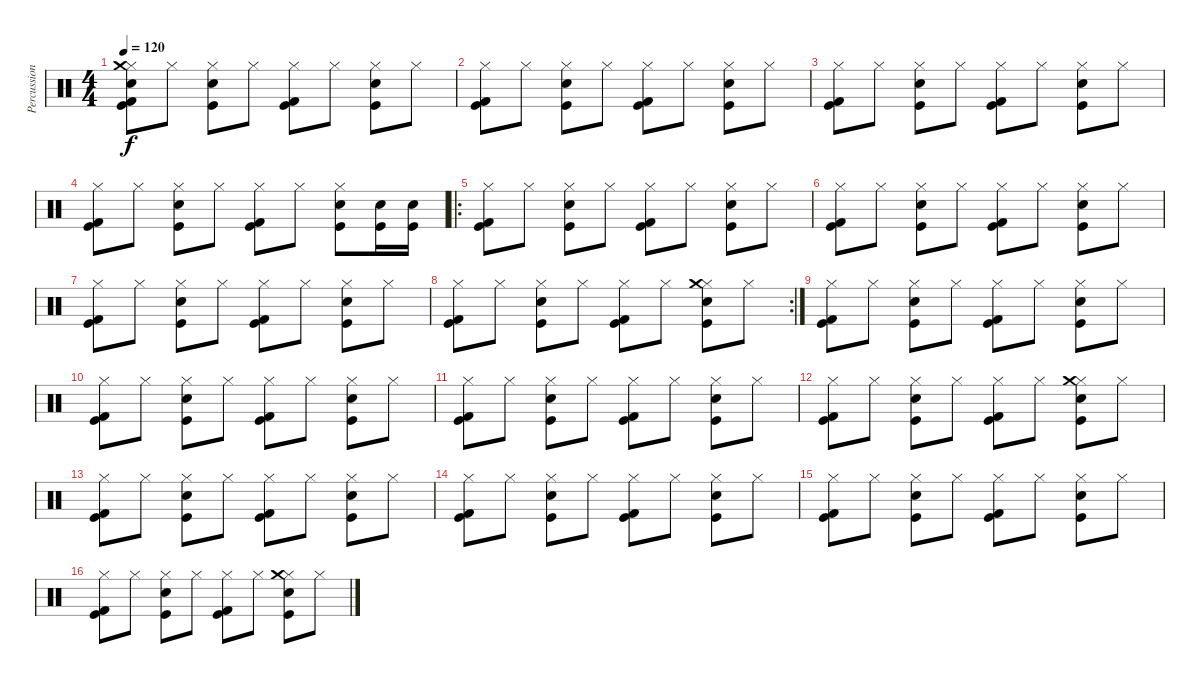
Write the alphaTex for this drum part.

\track ("Percussion" "Percussion") {instrument percussion}
\staff {score}
\articulation defaults
\ts (4 4)
\tempo 120
\clef neutral
\ks c
("Hi-Hat (closed)" "Kick (hit)" "Kick (hit) 2" "Snare (hit) 2" "Crash medium (hit)").8{dy f} "Hi-Hat (closed)".8 ("Hi-Hat (closed)" "Kick (hit)" "Snare (hit) 2").8 "Hi-Hat (closed)".8 ("Hi-Hat (closed)" "Kick (hit)" "Kick (hit) 2").8 "Hi-Hat (closed)".8 ("Hi-Hat (closed)" "Kick (hit)" "Snare (hit) 2").8 "Hi-Hat (closed)".8 |
("Hi-Hat (closed)" "Kick (hit)" "Kick (hit) 2").8 "Hi-Hat (closed)".8 ("Hi-Hat (closed)" "Kick (hit)" "Snare (hit) 2").8 "Hi-Hat (closed)".8 ("Hi-Hat (closed)" "Kick (hit)" "Kick (hit) 2").8 "Hi-Hat (closed)".8 ("Hi-Hat (closed)" "Kick (hit)" "Snare (hit) 2").8 "Hi-Hat (closed)".8 |
("Hi-Hat (closed)" "Kick (hit)" "Kick (hit) 2").8 "Hi-Hat (closed)".8 ("Hi-Hat (closed)" "Kick (hit)" "Snare (hit) 2").8 "Hi-Hat (closed)".8 ("Hi-Hat (closed)" "Kick (hit)" "Kick (hit) 2").8 "Hi-Hat (closed)".8 ("Hi-Hat (closed)" "Kick (hit)" "Snare (hit) 2").8 "Hi-Hat (closed)".8 |
("Hi-Hat (closed)" "Kick (hit)" "Kick (hit) 2").8 "Hi-Hat (closed)".8 ("Hi-Hat (closed)" "Kick (hit)" "Snare (hit) 2").8 "Hi-Hat (closed)".8 ("Hi-Hat (closed)" "Kick (hit)" "Kick (hit) 2").8 "Hi-Hat (closed)".8 ("Hi-Hat (closed)" "Kick (hit)" "Snare (hit) 2").8 ("Kick (hit)" "Snare (hit) 2").16 ("Kick (hit)" "Snare (hit) 2").16 |
\ro
("Hi-Hat (closed)" "Kick (hit)" "Kick (hit) 2").8 "Hi-Hat (closed)".8 ("Hi-Hat (closed)" "Kick (hit)" "Snare (hit) 2").8 "Hi-Hat (closed)".8 ("Hi-Hat (closed)" "Kick (hit)" "Kick (hit) 2").8 "Hi-Hat (closed)".8 ("Hi-Hat (closed)" "Kick (hit)" "Snare (hit) 2").8 "Hi-Hat (closed)".8 |
("Hi-Hat (closed)" "Kick (hit)" "Kick (hit) 2").8 "Hi-Hat (closed)".8 ("Hi-Hat (closed)" "Kick (hit)" "Snare (hit) 2").8 "Hi-Hat (closed)".8 ("Hi-Hat (closed)" "Kick (hit)" "Kick (hit) 2").8 "Hi-Hat (closed)".8 ("Hi-Hat (closed)" "Kick (hit)" "Snare (hit) 2").8 "Hi-Hat (closed)".8 |
("Hi-Hat (closed)" "Kick (hit)" "Kick (hit) 2").8 "Hi-Hat (closed)".8 ("Hi-Hat (closed)" "Kick (hit)" "Snare (hit) 2").8 "Hi-Hat (closed)".8 ("Hi-Hat (closed)" "Kick (hit)" "Kick (hit) 2").8 "Hi-Hat (closed)".8 ("Hi-Hat (closed)" "Kick (hit)" "Snare (hit) 2").8 "Hi-Hat (closed)".8 |
\rc 2
("Hi-Hat (closed)" "Kick (hit)" "Kick (hit) 2").8 "Hi-Hat (closed)".8 ("Hi-Hat (closed)" "Kick (hit)" "Snare (hit) 2").8 "Hi-Hat (closed)".8 ("Hi-Hat (closed)" "Kick (hit)" "Kick (hit) 2").8 "Hi-Hat (closed)".8 ("Hi-Hat (closed)" "Kick (hit)" "Snare (hit) 2" "Crash medium (hit)").8 "Hi-Hat (closed)".8 |
("Hi-Hat (closed)" "Kick (hit)" "Kick (hit) 2").8 "Hi-Hat (closed)".8 ("Hi-Hat (closed)" "Kick (hit)" "Snare (hit) 2").8 "Hi-Hat (closed)".8 ("Hi-Hat (closed)" "Kick (hit)" "Kick (hit) 2").8 "Hi-Hat (closed)".8 ("Hi-Hat (closed)" "Kick (hit)" "Snare (hit) 2").8 "Hi-Hat (closed)".8 |
("Hi-Hat (closed)" "Kick (hit)" "Kick (hit) 2").8 "Hi-Hat (closed)".8 ("Hi-Hat (closed)" "Kick (hit)" "Snare (hit) 2").8 "Hi-Hat (closed)".8 ("Hi-Hat (closed)" "Kick (hit)" "Kick (hit) 2").8 "Hi-Hat (closed)".8 ("Hi-Hat (closed)" "Kick (hit)" "Snare (hit) 2").8 "Hi-Hat (closed)".8 |
("Hi-Hat (closed)" "Kick (hit)" "Kick (hit) 2").8 "Hi-Hat (closed)".8 ("Hi-Hat (closed)" "Kick (hit)" "Snare (hit) 2").8 "Hi-Hat (closed)".8 ("Hi-Hat (closed)" "Kick (hit)" "Kick (hit) 2").8 "Hi-Hat (closed)".8 ("Hi-Hat (closed)" "Kick (hit)" "Snare (hit) 2").8 "Hi-Hat (closed)".8 |
("Hi-Hat (closed)" "Kick (hit)" "Kick (hit) 2").8 "Hi-Hat (closed)".8 ("Hi-Hat (closed)" "Kick (hit)" "Snare (hit) 2").8 "Hi-Hat (closed)".8 ("Hi-Hat (closed)" "Kick (hit)" "Kick (hit) 2").8 "Hi-Hat (closed)".8 ("Hi-Hat (closed)" "Kick (hit)" "Snare (hit) 2" "Crash medium (hit)").8 "Hi-Hat (closed)".8 |
("Hi-Hat (closed)" "Kick (hit)" "Kick (hit) 2").8 "Hi-Hat (closed)".8 ("Hi-Hat (closed)" "Kick (hit)" "Snare (hit) 2").8 "Hi-Hat (closed)".8 ("Hi-Hat (closed)" "Kick (hit)" "Kick (hit) 2").8 "Hi-Hat (closed)".8 ("Hi-Hat (closed)" "Kick (hit)" "Snare (hit) 2").8 "Hi-Hat (closed)".8 |
("Hi-Hat (closed)" "Kick (hit)" "Kick (hit) 2").8 "Hi-Hat (closed)".8 ("Hi-Hat (closed)" "Kick (hit)" "Snare (hit) 2").8 "Hi-Hat (closed)".8 ("Hi-Hat (closed)" "Kick (hit)" "Kick (hit) 2").8 "Hi-Hat (closed)".8 ("Hi-Hat (closed)" "Kick (hit)" "Snare (hit) 2").8 "Hi-Hat (closed)".8 |
("Hi-Hat (closed)" "Kick (hit)" "Kick (hit) 2").8 "Hi-Hat (closed)".8 ("Hi-Hat (closed)" "Kick (hit)" "Snare (hit) 2").8 "Hi-Hat (closed)".8 ("Hi-Hat (closed)" "Kick (hit)" "Kick (hit) 2").8 "Hi-Hat (closed)".8 ("Hi-Hat (closed)" "Kick (hit)" "Snare (hit) 2").8 "Hi-Hat (closed)".8 |
("Hi-Hat (closed)" "Kick (hit)" "Kick (hit) 2").8 "Hi-Hat (closed)".8 ("Hi-Hat (closed)" "Kick (hit)" "Snare (hit) 2").8 "Hi-Hat (closed)".8 ("Hi-Hat (closed)" "Kick (hit)" "Kick (hit) 2").8 "Hi-Hat (closed)".8 ("Hi-Hat (closed)" "Kick (hit)" "Snare (hit) 2" "Crash medium (hit)").8 "Hi-Hat (closed)".8
